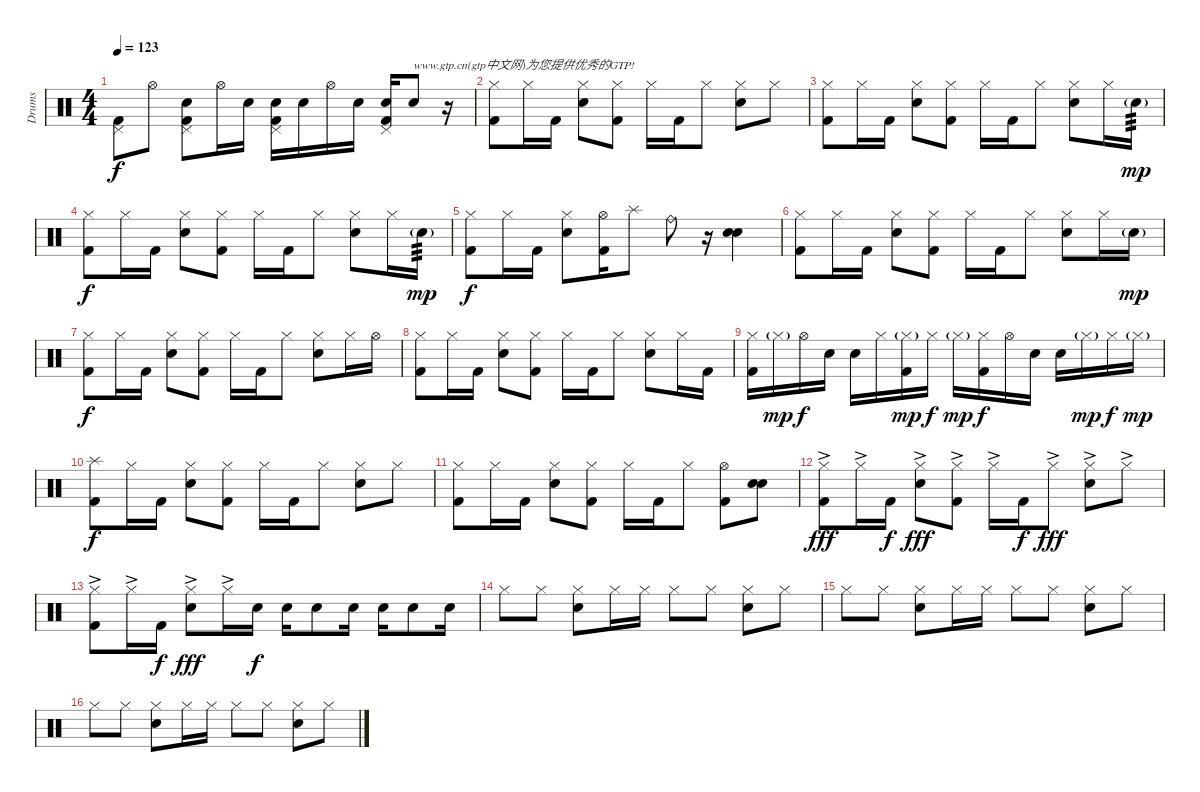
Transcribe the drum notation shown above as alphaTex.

\track ("Drums" "Drums") {instrument percussion}
\staff {score}
\articulation defaults
\ts (4 4)
\tempo 123
\clef neutral
\ks c
("Pedal Hi-Hat (hit)" "Kick (hit) 2").8{dy f} "Hi-Hat (open)".8 ("Pedal Hi-Hat (hit)" "Snare (hit) 2" "Kick (hit) 2").8 "Hi-Hat (open)".16 "Snare (hit) 2".16 ("Pedal Hi-Hat (hit)" "Snare (hit) 2" "Kick (hit) 2").16 "Snare (hit) 2".16 "Hi-Hat (open)".16 "Snare (hit) 2".16 ("Pedal Hi-Hat (hit)" "Snare (hit) 2" "Kick (hit) 2").16 "Snare (hit) 2".8{txt "www.gtp.cn(gtp中文网)为您提供优秀的GTP!"} r.16 |
("Hi-Hat (closed)" "Kick (hit) 2").8 "Hi-Hat (closed)".16 "Kick (hit) 2".16 ("Hi-Hat (closed)" "Snare (hit) 2").8 ("Hi-Hat (closed)" "Kick (hit) 2").8 "Hi-Hat (closed)".16 "Kick (hit) 2".16 "Hi-Hat (closed)".8 ("Hi-Hat (closed)" "Snare (hit) 2").8 "Hi-Hat (closed)".8 |
("Hi-Hat (closed)" "Kick (hit) 2").8 "Hi-Hat (closed)".16 "Kick (hit) 2".16 ("Hi-Hat (closed)" "Snare (hit) 2").8 ("Hi-Hat (closed)" "Kick (hit) 2").8 "Hi-Hat (closed)".16 "Kick (hit) 2".16 "Hi-Hat (closed)".8 ("Hi-Hat (closed)" "Snare (hit) 2").8 "Hi-Hat (closed)".16 "Snare (hit) 2"{g}.16{tp 3 dy mp} |
("Hi-Hat (closed)" "Kick (hit) 2").8{dy f} "Hi-Hat (closed)".16 "Kick (hit) 2".16 ("Hi-Hat (closed)" "Snare (hit) 2").8 ("Hi-Hat (closed)" "Kick (hit) 2").8 "Hi-Hat (closed)".16 "Kick (hit) 2".16 "Hi-Hat (closed)".8 ("Hi-Hat (closed)" "Snare (hit) 2").8 "Hi-Hat (closed)".16 "Snare (hit) 2"{g}.16{tp 3 dy mp} |
("Hi-Hat (closed)" "Kick (hit) 2").8{dy f} "Hi-Hat (closed)".16 "Kick (hit) 2".16 ("Hi-Hat (closed)" "Snare (hit) 2").8 ("Hi-Hat (open)" "Kick (hit) 2").16 "Splash (hit)".8 "Ride (bell)".8 r.16 ("Snare (hit) 2" "Snare (hit) 2").4 |
("Hi-Hat (closed)" "Kick (hit) 2").8 "Hi-Hat (closed)".16 "Kick (hit) 2".16 ("Hi-Hat (closed)" "Snare (hit) 2").8 ("Hi-Hat (closed)" "Kick (hit) 2").8 "Hi-Hat (closed)".16 "Kick (hit) 2".16 "Hi-Hat (closed)".8 ("Hi-Hat (closed)" "Snare (hit) 2").8 "Hi-Hat (closed)".16 "Snare (hit) 2"{g}.16{dy mp} |
("Hi-Hat (closed)" "Kick (hit) 2").8{dy f} "Hi-Hat (closed)".16 "Kick (hit) 2".16 ("Hi-Hat (closed)" "Snare (hit) 2").8 ("Hi-Hat (closed)" "Kick (hit) 2").8 "Hi-Hat (closed)".16 "Kick (hit) 2".16 "Hi-Hat (closed)".8 ("Hi-Hat (closed)" "Snare (hit) 2").8 "Hi-Hat (closed)".16 "Hi-Hat (open)".16 |
("Hi-Hat (closed)" "Kick (hit) 2").8 "Hi-Hat (closed)".16 "Kick (hit) 2".16 ("Hi-Hat (closed)" "Snare (hit) 2").8 ("Hi-Hat (closed)" "Kick (hit) 2").8 "Hi-Hat (closed)".16 "Kick (hit) 2".16 "Hi-Hat (closed)".8 ("Hi-Hat (closed)" "Snare (hit) 2").8 "Hi-Hat (closed)".16 "Kick (hit) 2".16 |
("Hi-Hat (closed)" "Kick (hit) 2").16 "Hi-Hat (closed)"{g}.16{dy mp} "Hi-Hat (open)".16{dy f} "Snare (hit) 2".16 "Snare (hit) 2".16 "Hi-Hat (closed)".16 ("Hi-Hat (closed)"{g} "Kick (hit) 2").16{dy mp} "Hi-Hat (closed)".16{dy f} "Hi-Hat (closed)"{g}.16{dy mp} ("Hi-Hat (closed)" "Kick (hit) 2").16{dy f} "Hi-Hat (open)".16 "Snare (hit) 2".16 "Snare (hit) 2".16 "Hi-Hat (closed)"{g}.16{dy mp} "Hi-Hat (closed)".16{dy f} "Hi-Hat (closed)"{g}.16{dy mp} |
("Splash (hit)" "Kick (hit) 2").8{dy f} "Hi-Hat (closed)".16 "Kick (hit) 2".16 ("Hi-Hat (closed)" "Snare (hit) 2").8 ("Hi-Hat (closed)" "Kick (hit) 2").8 "Hi-Hat (closed)".16 "Kick (hit) 2".16 "Hi-Hat (closed)".8 ("Hi-Hat (closed)" "Snare (hit) 2").8 "Hi-Hat (closed)".8 |
("Hi-Hat (closed)" "Kick (hit) 2").8 "Hi-Hat (closed)".16 "Kick (hit) 2".16 ("Hi-Hat (closed)" "Snare (hit) 2").8 ("Hi-Hat (closed)" "Kick (hit) 2").8 "Hi-Hat (closed)".16 "Kick (hit) 2".16 "Hi-Hat (closed)".8 ("Hi-Hat (open)" "Kick (hit) 2").8 ("Snare (hit) 2" "Snare (hit) 2").8 |
("Hi-Hat (closed)"{ac} "Kick (hit) 2").8{dy fff} "Hi-Hat (closed)"{ac}.16 "Kick (hit) 2".16{dy f} ("Hi-Hat (closed)"{ac} "Snare (hit) 2").8{dy fff} ("Hi-Hat (closed)"{ac} "Kick (hit) 2").8 "Hi-Hat (closed)"{ac}.16 "Kick (hit) 2".16{dy f} "Hi-Hat (closed)"{ac}.8{dy fff} ("Hi-Hat (closed)"{ac} "Snare (hit) 2").8 "Hi-Hat (closed)"{ac}.8 |
("Hi-Hat (closed)"{ac} "Kick (hit) 2").8 "Hi-Hat (closed)"{ac}.16 "Kick (hit) 2".16{dy f} ("Hi-Hat (closed)"{ac} "Snare (hit) 2").8{dy fff} "Hi-Hat (closed)"{ac}.16 "Snare (hit) 2".16{dy f} "Snare (hit) 2".16 "Snare (hit) 2".8 "Snare (hit) 2".16 "Snare (hit) 2".16 "Snare (hit) 2".8 "Snare (hit) 2".16 |
"Hi-Hat (closed)".8 "Hi-Hat (closed)".8 ("Hi-Hat (closed)" "Snare (hit) 2").8 "Hi-Hat (closed)".16 "Hi-Hat (closed)".16 "Hi-Hat (closed)".8 "Hi-Hat (closed)".8 ("Hi-Hat (closed)" "Snare (hit) 2").8 "Hi-Hat (closed)".8 |
"Hi-Hat (closed)".8 "Hi-Hat (closed)".8 ("Hi-Hat (closed)" "Snare (hit) 2").8 "Hi-Hat (closed)".16 "Hi-Hat (closed)".16 "Hi-Hat (closed)".8 "Hi-Hat (closed)".8 ("Hi-Hat (closed)" "Snare (hit) 2").8 "Hi-Hat (closed)".8 |
"Hi-Hat (closed)".8 "Hi-Hat (closed)".8 ("Hi-Hat (closed)" "Snare (hit) 2").8 "Hi-Hat (closed)".16 "Hi-Hat (closed)".16 "Hi-Hat (closed)".8 "Hi-Hat (closed)".8 ("Hi-Hat (closed)" "Snare (hit) 2").8 "Hi-Hat (closed)".8
